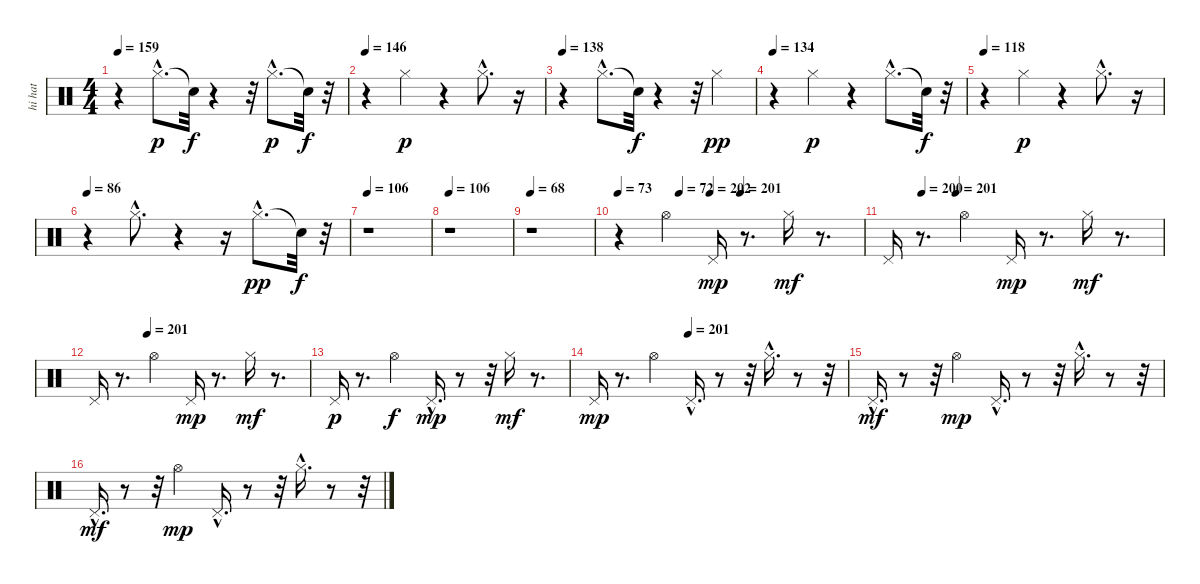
\track ("hi hat" "hi hat") {instrument percussion}
\staff {score}
\articulation defaults
\ts (4 4)
\tempo 159
\clef neutral
\ks c
r.4{dy f} "Hi-Hat (closed)"{hac}.8{d dy p} "Snare (hit)"{t}.32{dy f} r.4 r.32 "Hi-Hat (closed)"{hac}.8{d dy p} "Snare (hit)"{t}.32{dy f} r.32 |
\tempo 146
r.4 "Hi-Hat (closed)".4{dy p} r.4 "Hi-Hat (closed)"{hac}.8{d} r.16 |
\tempo 138
r.4 "Hi-Hat (closed)"{hac}.8{d} "Snare (hit)"{t}.32{dy f} r.4 r.32 "Hi-Hat (closed)".4{dy pp} |
\tempo 134
r.4 "Hi-Hat (closed)".4{dy p} r.4 "Hi-Hat (closed)"{hac}.8{d} "Snare (hit)"{t}.32{dy f} r.32 |
\tempo 118
r.4 "Hi-Hat (closed)".4{dy p} r.4 "Hi-Hat (closed)"{hac}.8{d} r.16 |
\tempo 86
r.4 "Hi-Hat (closed)"{hac}.8{d} r.4 r.16 "Hi-Hat (closed)"{hac}.8{d dy pp} "Snare (hit)"{t}.32{dy f} r.32 |
\tempo 106
r.1 |
\tempo 106
r.1 |
\tempo 68
r.1 |
\tempo 73
\tempo (72 0.25)
\tempo (202 0.375)
\tempo (201 0.5)
r.4 "Hi-Hat (open)".4 "Pedal Hi-Hat (hit)".16{dy mp} r.8{d} "Hi-Hat (closed)".16{dy mf} r.8{d} |
\tempo (200 0.125)
\tempo (201 0.25)
"Pedal Hi-Hat (hit)".16 r.8{d} "Hi-Hat (open)".4 "Pedal Hi-Hat (hit)".16{dy mp} r.8{d} "Hi-Hat (closed)".16{dy mf} r.8{d} |
\tempo (201 0.25)
"Pedal Hi-Hat (hit)".16 r.8{d} "Hi-Hat (open)".4 "Pedal Hi-Hat (hit)".16{dy mp} r.8{d} "Hi-Hat (closed)".16{dy mf} r.8{d} |
"Pedal Hi-Hat (hit)".16{dy p} r.8{d} "Hi-Hat (open)".4{dy f} "Pedal Hi-Hat (hit)"{hac}.16{d dy mp} r.8 r.32 "Hi-Hat (closed)".16{dy mf} r.8{d} |
\tempo (201 0.375)
"Pedal Hi-Hat (hit)".16{dy mp} r.8{d} "Hi-Hat (open)".4 "Pedal Hi-Hat (hit)"{hac}.16{d} r.8 r.32 "Hi-Hat (closed)"{hac}.16{d} r.8 r.32 |
"Pedal Hi-Hat (hit)"{hac}.16{d dy mf} r.8 r.32 "Hi-Hat (open)".4{dy mp} "Pedal Hi-Hat (hit)"{hac}.16{d} r.8 r.32 "Hi-Hat (closed)"{hac}.16{d} r.8 r.32 |
"Pedal Hi-Hat (hit)"{hac}.16{d dy mf} r.8 r.32 "Hi-Hat (open)".4{dy mp} "Pedal Hi-Hat (hit)"{hac}.16{d} r.8 r.32 "Hi-Hat (closed)"{hac}.16{d} r.8 r.32
